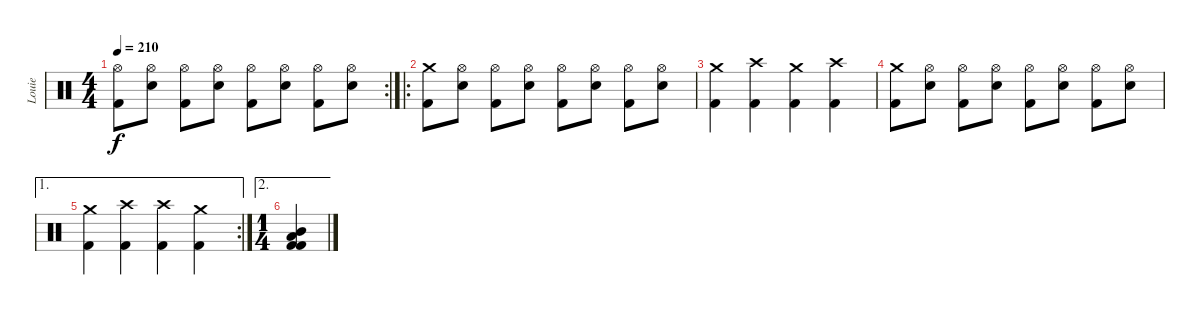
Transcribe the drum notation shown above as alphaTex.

\track ("Louie" "Louie") {instrument percussion}
\staff {score}
\articulation defaults
\rc 2
\ts (4 4)
\tempo 210
\clef neutral
\ks c
("Hi-Hat (open)" "Kick (hit) 2").8{dy f} ("Hi-Hat (open)" "Snare (hit) 2").8 ("Hi-Hat (open)" "Kick (hit) 2").8 ("Hi-Hat (open)" "Snare (hit) 2").8 ("Hi-Hat (open)" "Kick (hit) 2").8 ("Hi-Hat (open)" "Snare (hit) 2").8 ("Hi-Hat (open)" "Kick (hit) 2").8 ("Hi-Hat (open)" "Snare (hit) 2").8 |
\ro
("Crash medium (hit)" "Kick (hit) 2").8 ("Hi-Hat (open)" "Snare (hit) 2").8 ("Hi-Hat (open)" "Kick (hit) 2").8 ("Hi-Hat (open)" "Snare (hit) 2").8 ("Hi-Hat (open)" "Kick (hit) 2").8 ("Hi-Hat (open)" "Snare (hit) 2").8 ("Hi-Hat (open)" "Kick (hit) 2").8 ("Hi-Hat (open)" "Snare (hit) 2").8 |
("Crash medium (hit)" "Kick (hit) 2").4 ("Crash high (hit)" "Kick (hit) 2").4 ("Crash medium (hit)" "Kick (hit) 2").4 ("Crash high (hit)" "Kick (hit) 2").4 |
("Crash medium (hit)" "Kick (hit) 2").8 ("Hi-Hat (open)" "Snare (hit) 2").8 ("Hi-Hat (open)" "Kick (hit) 2").8 ("Hi-Hat (open)" "Snare (hit) 2").8 ("Hi-Hat (open)" "Kick (hit) 2").8 ("Hi-Hat (open)" "Snare (hit) 2").8 ("Hi-Hat (open)" "Kick (hit) 2").8 ("Hi-Hat (open)" "Snare (hit) 2").8 |
\ae 1
\rc 2
("Crash medium (hit)" "Kick (hit) 2").4 ("Crash high (hit)" "Kick (hit) 2").4 ("Crash high (hit)" "Kick (hit) 2").4 ("Crash medium (hit)" "Kick (hit) 2").4 |
\ae 2
\ts (1 4)
("Mid Tom (hit)" "Low Tom (hit)" "Kick (hit) 2" "Kick (hit) 2").4
